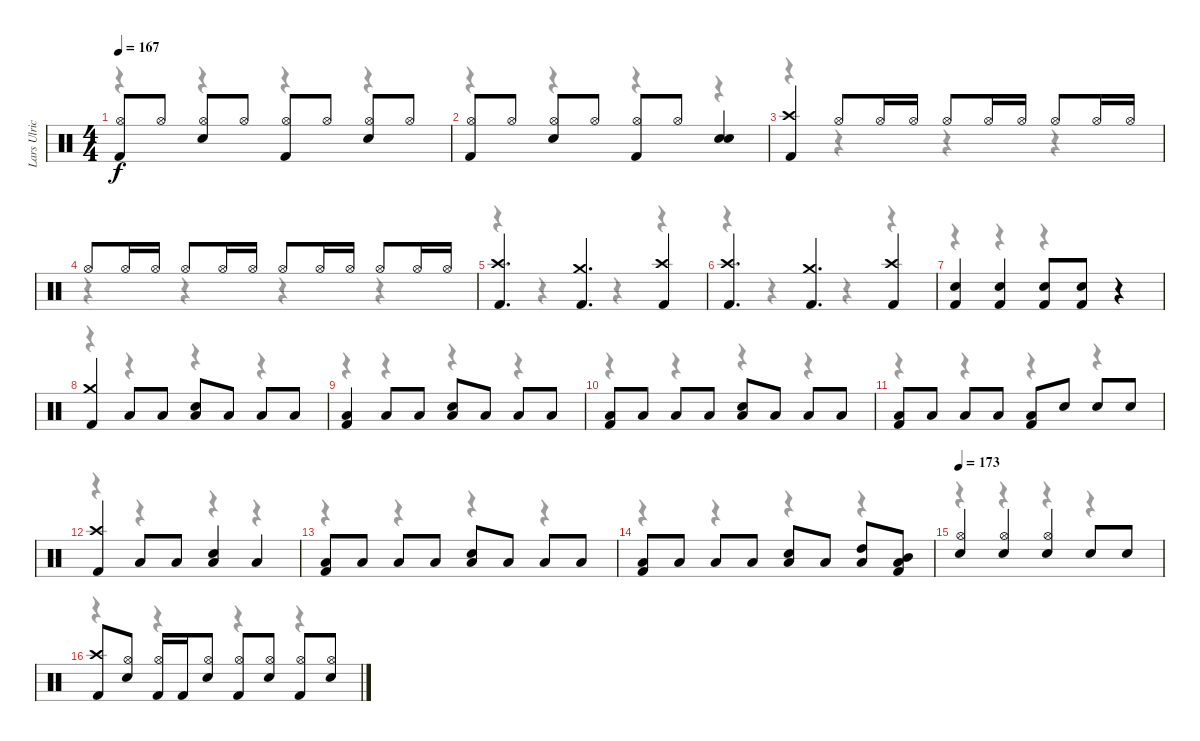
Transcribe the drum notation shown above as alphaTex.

\track ("Lars Ulrich" "Lars Ulric") {instrument percussion}
\staff {score}
\articulation defaults
\voice
\ts (4 4)
\tempo 167
\clef neutral
\ks c
("Hi-Hat (open)" "Kick (hit) 2").8{dy f} "Hi-Hat (open)".8 ("Hi-Hat (open)" "Snare (hit) 2").8 "Hi-Hat (open)".8 ("Hi-Hat (open)" "Kick (hit) 2").8 "Hi-Hat (open)".8 ("Hi-Hat (open)" "Snare (hit) 2").8 "Hi-Hat (open)".8 |
("Hi-Hat (open)" "Kick (hit) 2").8 "Hi-Hat (open)".8 ("Hi-Hat (open)" "Snare (hit) 2").8 "Hi-Hat (open)".8 ("Hi-Hat (open)" "Kick (hit) 2").8 "Hi-Hat (open)".8 ("Snare (hit) 2" "Snare (hit) 2").4 |
("Crash high (hit)" "Kick (hit) 2").4 "Hi-Hat (open)".8 "Hi-Hat (open)".16 "Hi-Hat (open)".16 "Hi-Hat (open)".8 "Hi-Hat (open)".16 "Hi-Hat (open)".16 "Hi-Hat (open)".8 "Hi-Hat (open)".16 "Hi-Hat (open)".16 |
"Hi-Hat (open)".8 "Hi-Hat (open)".16 "Hi-Hat (open)".16 "Hi-Hat (open)".8 "Hi-Hat (open)".16 "Hi-Hat (open)".16 "Hi-Hat (open)".8 "Hi-Hat (open)".16 "Hi-Hat (open)".16 "Hi-Hat (open)".8 "Hi-Hat (open)".16 "Hi-Hat (open)".16 |
("Crash high (hit)" "Kick (hit) 2").4{d} ("Crash medium (hit)" "Kick (hit) 2").4{d} ("Crash high (hit)" "Kick (hit) 2").4 |
("Crash high (hit)" "Kick (hit) 2").4{d} ("Crash medium (hit)" "Kick (hit) 2").4{d} ("Crash high (hit)" "Kick (hit) 2").4 |
("Kick (hit) 2" "Snare (hit) 2").4 ("Kick (hit) 2" "Snare (hit) 2").4 ("Kick (hit) 2" "Snare (hit) 2").8 ("Kick (hit) 2" "Snare (hit) 2").8 r.4 |
("Crash medium (hit)" "Kick (hit) 2").4 "Low Tom (hit)".8 "Low Tom (hit)".8 ("Snare (hit) 2" "Low Tom (hit)").8 "Low Tom (hit)".8 "Low Tom (hit)".8 "Low Tom (hit)".8 |
("Low Tom (hit)" "Kick (hit) 2").4 "Low Tom (hit)".8 "Low Tom (hit)".8 ("Low Tom (hit)" "Snare (hit) 2").8 "Low Tom (hit)".8 "Low Tom (hit)".8 "Low Tom (hit)".8 |
("Low Tom (hit)" "Kick (hit) 2").8 "Low Tom (hit)".8 "Low Tom (hit)".8 "Low Tom (hit)".8 ("Low Tom (hit)" "Snare (hit) 2").8 "Low Tom (hit)".8 "Low Tom (hit)".8 "Low Tom (hit)".8 |
("Low Tom (hit)" "Kick (hit) 2").8 "Low Tom (hit)".8 "Low Tom (hit)".8 "Low Tom (hit)".8 ("Low Tom (hit)" "Kick (hit) 2").8 "Snare (hit) 2".8 "Snare (hit) 2".8 "Snare (hit) 2".8 |
("Crash high (hit)" "Kick (hit) 2").4 "Low Tom (hit)".8 "Low Tom (hit)".8 ("Snare (hit) 2" "Low Tom (hit)").4 "Low Tom (hit)".4 |
("Low Tom (hit)" "Kick (hit) 2").8 "Low Tom (hit)".8 "Low Tom (hit)".8 "Low Tom (hit)".8 ("Low Tom (hit)" "Snare (hit) 2").8 "Low Tom (hit)".8 "Low Tom (hit)".8 "Low Tom (hit)".8 |
("Low Tom (hit)" "Kick (hit) 2").8 "Low Tom (hit)".8 "Low Tom (hit)".8 "Low Tom (hit)".8 ("Low Tom (hit)" "Snare (hit) 2").8 "Low Tom (hit)".8 ("High Tom (hit)" "Low Tom (hit)").8 ("Mid Tom (hit)" "Low Tom (hit)" "Kick (hit) 2").8 |
\tempo 173
("Hi-Hat (open)" "Snare (hit) 2").4 ("Hi-Hat (open)" "Snare (hit) 2").4 ("Hi-Hat (open)" "Snare (hit) 2").4 "Snare (hit) 2".8 "Snare (hit) 2".8 |
("Crash high (hit)" "Kick (hit) 2").8 ("Hi-Hat (open)" "Snare (hit) 2").8 ("Hi-Hat (open)" "Kick (hit) 2").16 "Kick (hit) 2".16 ("Hi-Hat (open)" "Snare (hit) 2").8 ("Hi-Hat (open)" "Kick (hit) 2").8 ("Hi-Hat (open)" "Snare (hit) 2").8 ("Hi-Hat (open)" "Kick (hit) 2").8 ("Hi-Hat (open)" "Snare (hit) 2").8
\voice
\clef neutral
\ottava regular
\simile none
\ks c
r.4{dy f} r.4 r.4 r.4 |
r.4 r.4 r.4 r.4 |
r.4 r.4 r.4 r.4 |
r.4 r.4 r.4 r.4 |
r.4 r.4 r.4 r.4 |
r.4 r.4 r.4 r.4 |
r.4 r.4 r.4 r.4 |
r.4 r.4 r.4 r.4 |
r.4 r.4 r.4 r.4 |
r.4 r.4 r.4 r.4 |
r.4 r.4 r.4 r.4 |
r.4 r.4 r.4 r.4 |
r.4 r.4 r.4 r.4 |
r.4 r.4 r.4 r.4 |
r.4 r.4 r.4 r.4 |
r.4 r.4 r.4 r.4
